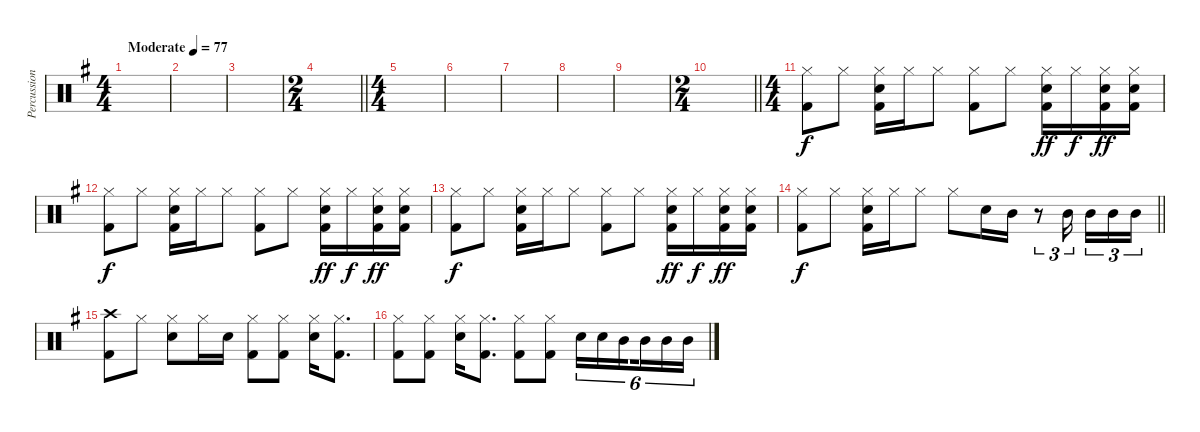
\track ("Percussion" "Percussion") {instrument percussion}
\staff {score}
\articulation defaults
\ts (4 4)
\tempo (77 "Moderate")
\clef neutral
\ks g
|
|
|
\ts (2 4)
\barLineRight lightlight
|
\ts (4 4)
|
|
|
|
|
\ts (2 4)
\barLineRight lightlight
|
\ts (4 4)
("Hi-Hat (closed)" "Kick (hit) 2").8 "Hi-Hat (closed)".8 ("Hi-Hat (closed)" "Snare (hit) 2" "Kick (hit) 2").16 "Hi-Hat (closed)".16 "Hi-Hat (closed)".8 ("Hi-Hat (closed)" "Kick (hit) 2").8 "Hi-Hat (closed)".8 ("Hi-Hat (closed)" "Snare (hit) 2" "Kick (hit) 2").16{dy ff} "Hi-Hat (closed)".16{dy f} ("Hi-Hat (closed)" "Snare (hit) 2" "Kick (hit) 2").16{dy ff} ("Hi-Hat (closed)" "Snare (hit) 2" "Kick (hit) 2").16 |
("Hi-Hat (closed)" "Kick (hit) 2").8{dy f} "Hi-Hat (closed)".8 ("Hi-Hat (closed)" "Snare (hit) 2" "Kick (hit) 2").16 "Hi-Hat (closed)".16 "Hi-Hat (closed)".8 ("Hi-Hat (closed)" "Kick (hit) 2").8 "Hi-Hat (closed)".8 ("Hi-Hat (closed)" "Snare (hit) 2" "Kick (hit) 2").16{dy ff} "Hi-Hat (closed)".16{dy f} ("Hi-Hat (closed)" "Snare (hit) 2" "Kick (hit) 2").16{dy ff} ("Hi-Hat (closed)" "Snare (hit) 2" "Kick (hit) 2").16 |
("Hi-Hat (closed)" "Kick (hit) 2").8{dy f} "Hi-Hat (closed)".8 ("Hi-Hat (closed)" "Snare (hit) 2" "Kick (hit) 2").16 "Hi-Hat (closed)".16 "Hi-Hat (closed)".8 ("Hi-Hat (closed)" "Kick (hit) 2").8 "Hi-Hat (closed)".8 ("Hi-Hat (closed)" "Snare (hit) 2" "Kick (hit) 2").16{dy ff} "Hi-Hat (closed)".16{dy f} ("Hi-Hat (closed)" "Snare (hit) 2" "Kick (hit) 2").16{dy ff} ("Hi-Hat (closed)" "Snare (hit) 2" "Kick (hit) 2").16 |
\barLineRight lightlight
("Hi-Hat (closed)" "Kick (hit) 2").8{dy f} "Hi-Hat (closed)".8 ("Hi-Hat (closed)" "Snare (hit) 2" "Kick (hit) 2").16 "Hi-Hat (closed)".16 "Hi-Hat (closed)".8 "Hi-Hat (closed)".8 "Snare (hit) 2".16 "Mid Tom (hit)".16 r.8{tu (3 2)} "Mid Tom (hit)".16{tu (3 2) beam splitsecondary} "Mid Tom (hit)".16{tu (3 2)} "Mid Tom (hit)".16{tu (3 2)} "Mid Tom (hit)".16{tu (3 2)} |
("Crash high (hit)" "Kick (hit) 2").8 "Hi-Hat (closed)".8 ("Hi-Hat (closed)" "Snare (hit) 2").8 "Hi-Hat (closed)".16 "Snare (hit) 2".16 ("Hi-Hat (closed)" "Kick (hit) 2").8 ("Hi-Hat (closed)" "Kick (hit) 2").8 ("Hi-Hat (closed)" "Snare (hit) 2").16 ("Hi-Hat (closed)" "Kick (hit) 2").8{d} |
("Hi-Hat (closed)" "Kick (hit) 2").8 ("Hi-Hat (closed)" "Kick (hit) 2").8 ("Hi-Hat (closed)" "Snare (hit) 2").16 ("Hi-Hat (closed)" "Kick (hit) 2").8{d} ("Hi-Hat (closed)" "Kick (hit) 2").8 ("Hi-Hat (closed)" "Kick (hit) 2").8 "Snare (hit) 2".16{tu (6 4)} "Snare (hit) 2".16{tu (6 4)} "Mid Tom (hit)".16{tu (6 4) beam splitsecondary} "Mid Tom (hit)".16{tu (6 4)} "Mid Tom (hit)".16{tu (6 4)} "Mid Tom (hit)".16{tu (6 4)}
